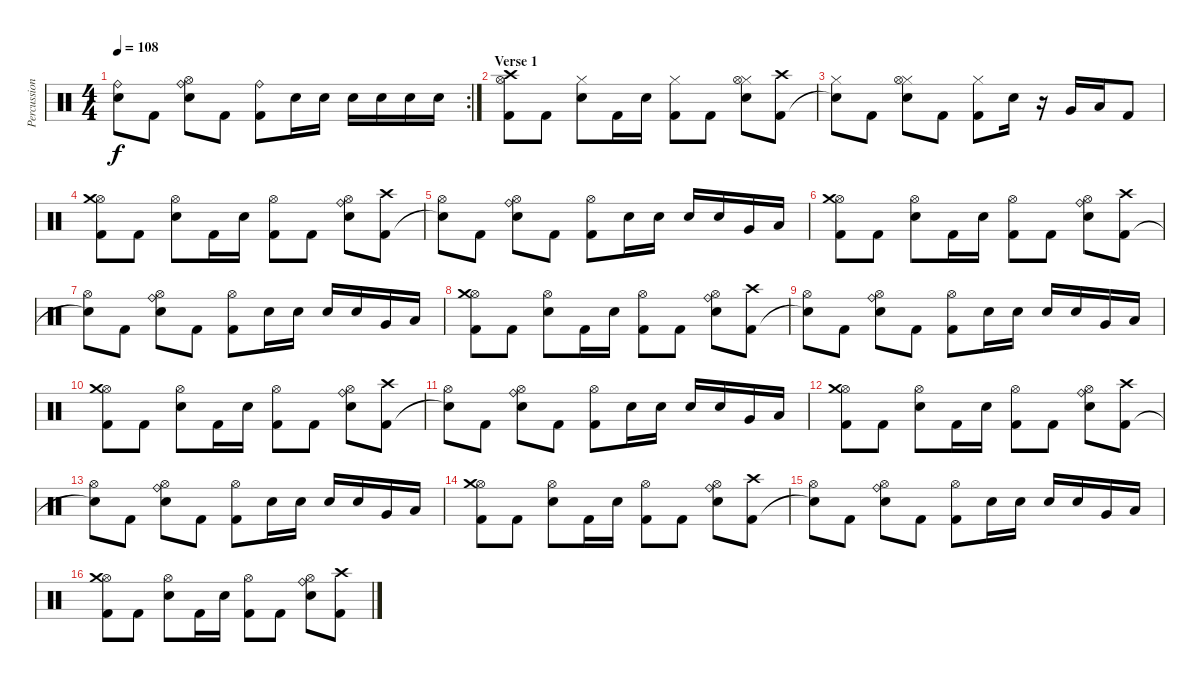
\track ("Percussion" "Percussion") {instrument percussion}
\staff {score}
\articulation defaults
\rc 2
\ts (4 4)
\tempo 108
\clef neutral
\ks c
("Ride (bell)" "Snare (hit)"{t}).8{dy f} "Kick (hit) 2".8 ("Ride (bell)" "Hi-Hat (open)" "Snare (hit) 2").8 "Kick (hit) 2".8 ("Ride (bell)" "Kick (hit) 2").8 "Electric Snare (hit)".16 "Electric Snare (hit)".16 "Electric Snare (hit)".16 "Electric Snare (hit)".16 "Electric Snare (hit)".16 "Electric Snare (hit)".16 |
\section ("" "Verse 1")
("Hi-Hat (open)" "Crash high (hit)" "Kick (hit) 2").8 "Kick (hit) 2".8 ("Hi-Hat (closed)" "Snare (hit) 2").8 "Kick (hit) 2".16 "Snare (hit) 2".16 ("Hi-Hat (closed)" "Kick (hit) 2").8 "Kick (hit) 2".8 ("Hi-Hat (closed)" "Hi-Hat (open)" "Snare (hit) 2").8 ("Crash high (hit)" "Kick (hit) 2").8 |
("Hi-Hat (closed)" "Snare (hit)"{t}).8 "Kick (hit) 2".8 ("Hi-Hat (closed)" "Hi-Hat (open)" "Snare (hit) 2").8 "Kick (hit) 2".8 ("Hi-Hat (closed)" "Kick (hit) 2").8 "Electric Snare (hit)".16 r.16 "Very Low Tom (hit)".16 "Low Floor Tom (hit)".16 "Kick (hit) 2".8 |
("Hi-Hat (open)" "Crash medium (hit)" "Kick (hit) 2").8 "Kick (hit) 2".8 ("Hi-Hat (open)" "Snare (hit) 2").8 "Kick (hit) 2".16 "Snare (hit) 2".16 ("Hi-Hat (open)" "Kick (hit) 2").8 "Kick (hit) 2".8 ("Ride (bell)" "Hi-Hat (open)" "Snare (hit) 2").8 ("Crash high (hit)" "Kick (hit) 2").8 |
("Hi-Hat (open)" "Snare (hit)"{t}).8 "Kick (hit) 2".8 ("Ride (bell)" "Hi-Hat (open)" "Snare (hit) 2").8 "Kick (hit) 2".8 ("Hi-Hat (open)" "Kick (hit) 2").8 "Electric Snare (hit)".16 "Electric Snare (hit)".16 "Electric Snare (hit)".16 "Electric Snare (hit)".16 "Very Low Tom (hit)".16 "Low Floor Tom (hit)".16 |
("Hi-Hat (open)" "Crash medium (hit)" "Kick (hit) 2").8 "Kick (hit) 2".8 ("Hi-Hat (open)" "Snare (hit) 2").8 "Kick (hit) 2".16 "Snare (hit) 2".16 ("Hi-Hat (open)" "Kick (hit) 2").8 "Kick (hit) 2".8 ("Ride (bell)" "Hi-Hat (open)" "Snare (hit) 2").8 ("Crash high (hit)" "Kick (hit) 2").8 |
("Hi-Hat (open)" "Snare (hit)"{t}).8 "Kick (hit) 2".8 ("Ride (bell)" "Hi-Hat (open)" "Snare (hit) 2").8 "Kick (hit) 2".8 ("Hi-Hat (open)" "Kick (hit) 2").8 "Electric Snare (hit)".16 "Electric Snare (hit)".16 "Electric Snare (hit)".16 "Electric Snare (hit)".16 "Very Low Tom (hit)".16 "Low Floor Tom (hit)".16 |
("Hi-Hat (open)" "Crash medium (hit)" "Kick (hit) 2").8 "Kick (hit) 2".8 ("Hi-Hat (open)" "Snare (hit) 2").8 "Kick (hit) 2".16 "Snare (hit) 2".16 ("Hi-Hat (open)" "Kick (hit) 2").8 "Kick (hit) 2".8 ("Ride (bell)" "Hi-Hat (open)" "Snare (hit) 2").8 ("Crash high (hit)" "Kick (hit) 2").8 |
("Hi-Hat (open)" "Snare (hit)"{t}).8 "Kick (hit) 2".8 ("Ride (bell)" "Hi-Hat (open)" "Snare (hit) 2").8 "Kick (hit) 2".8 ("Hi-Hat (open)" "Kick (hit) 2").8 "Electric Snare (hit)".16 "Electric Snare (hit)".16 "Electric Snare (hit)".16 "Electric Snare (hit)".16 "Very Low Tom (hit)".16 "Low Floor Tom (hit)".16 |
("Hi-Hat (open)" "Crash medium (hit)" "Kick (hit) 2").8 "Kick (hit) 2".8 ("Hi-Hat (open)" "Snare (hit) 2").8 "Kick (hit) 2".16 "Snare (hit) 2".16 ("Hi-Hat (open)" "Kick (hit) 2").8 "Kick (hit) 2".8 ("Ride (bell)" "Hi-Hat (open)" "Snare (hit) 2").8 ("Crash high (hit)" "Kick (hit) 2").8 |
("Hi-Hat (open)" "Snare (hit)"{t}).8 "Kick (hit) 2".8 ("Ride (bell)" "Hi-Hat (open)" "Snare (hit) 2").8 "Kick (hit) 2".8 ("Hi-Hat (open)" "Kick (hit) 2").8 "Electric Snare (hit)".16 "Electric Snare (hit)".16 "Electric Snare (hit)".16 "Electric Snare (hit)".16 "Very Low Tom (hit)".16 "Low Floor Tom (hit)".16 |
("Hi-Hat (open)" "Crash medium (hit)" "Kick (hit) 2").8 "Kick (hit) 2".8 ("Hi-Hat (open)" "Snare (hit) 2").8 "Kick (hit) 2".16 "Snare (hit) 2".16 ("Hi-Hat (open)" "Kick (hit) 2").8 "Kick (hit) 2".8 ("Ride (bell)" "Hi-Hat (open)" "Snare (hit) 2").8 ("Crash high (hit)" "Kick (hit) 2").8 |
("Hi-Hat (open)" "Snare (hit)"{t}).8 "Kick (hit) 2".8 ("Ride (bell)" "Hi-Hat (open)" "Snare (hit) 2").8 "Kick (hit) 2".8 ("Hi-Hat (open)" "Kick (hit) 2").8 "Electric Snare (hit)".16 "Electric Snare (hit)".16 "Electric Snare (hit)".16 "Electric Snare (hit)".16 "Very Low Tom (hit)".16 "Low Floor Tom (hit)".16 |
("Hi-Hat (open)" "Crash medium (hit)" "Kick (hit) 2").8 "Kick (hit) 2".8 ("Hi-Hat (open)" "Snare (hit) 2").8 "Kick (hit) 2".16 "Snare (hit) 2".16 ("Hi-Hat (open)" "Kick (hit) 2").8 "Kick (hit) 2".8 ("Ride (bell)" "Hi-Hat (open)" "Snare (hit) 2").8 ("Crash high (hit)" "Kick (hit) 2").8 |
("Hi-Hat (open)" "Snare (hit)"{t}).8 "Kick (hit) 2".8 ("Ride (bell)" "Hi-Hat (open)" "Snare (hit) 2").8 "Kick (hit) 2".8 ("Hi-Hat (open)" "Kick (hit) 2").8 "Electric Snare (hit)".16 "Electric Snare (hit)".16 "Electric Snare (hit)".16 "Electric Snare (hit)".16 "Very Low Tom (hit)".16 "Low Floor Tom (hit)".16 |
("Hi-Hat (open)" "Crash medium (hit)" "Kick (hit) 2").8 "Kick (hit) 2".8 ("Hi-Hat (open)" "Snare (hit) 2").8 "Kick (hit) 2".16 "Snare (hit) 2".16 ("Hi-Hat (open)" "Kick (hit) 2").8 "Kick (hit) 2".8 ("Ride (bell)" "Hi-Hat (open)" "Snare (hit) 2").8 ("Crash high (hit)" "Kick (hit) 2").8
